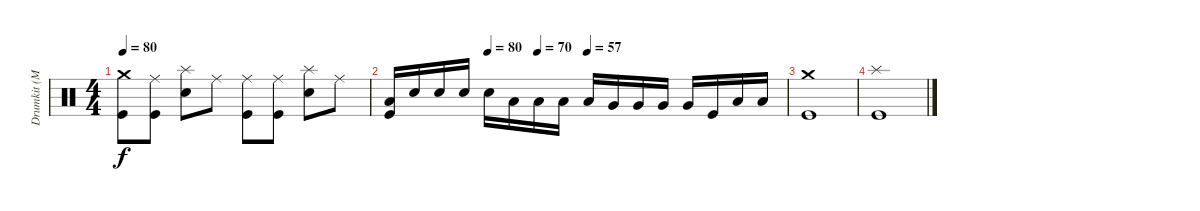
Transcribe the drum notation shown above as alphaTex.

\track ("Drumkit (McBrain)" "Drumkit (M") {instrument percussion}
\staff {score}
\articulation defaults
\ts (4 4)
\tempo 80
\clef neutral
\ks c
("Crash medium (hit)" "Kick (hit)").8{dy f} ("Ride (middle)" "Kick (hit)").8 ("Splash (hit)" "Snare (hit) 2").8 "Ride (middle)".8 ("Ride (middle)" "Kick (hit)").8 ("Ride (middle)" "Kick (hit)").8 ("Splash (hit)" "Snare (hit) 2").8 "Ride (middle)".8 |
\tempo (80 0.25)
\tempo (70 0.375)
\tempo (57 0.5)
("Kick (hit)" "Low Tom (hit)").16 "Snare (hit) 2".16 "Snare (hit) 2".16 "Snare (hit) 2".16 "Snare (hit) 2".16 "Low Tom (hit)".16 "Low Tom (hit)".16 "Low Tom (hit)".16 "Low Tom (hit)".16 "Very Low Tom (hit)".16 "Very Low Tom (hit)".16 "Very Low Tom (hit)".16 "Very Low Tom (hit)".16 "Kick (hit)".16 "Low Floor Tom (hit)".16 "Low Floor Tom (hit)".16 |
("Kick (hit)" "Crash medium (hit)").1 |
("Splash (hit)" "Kick (hit)").1
